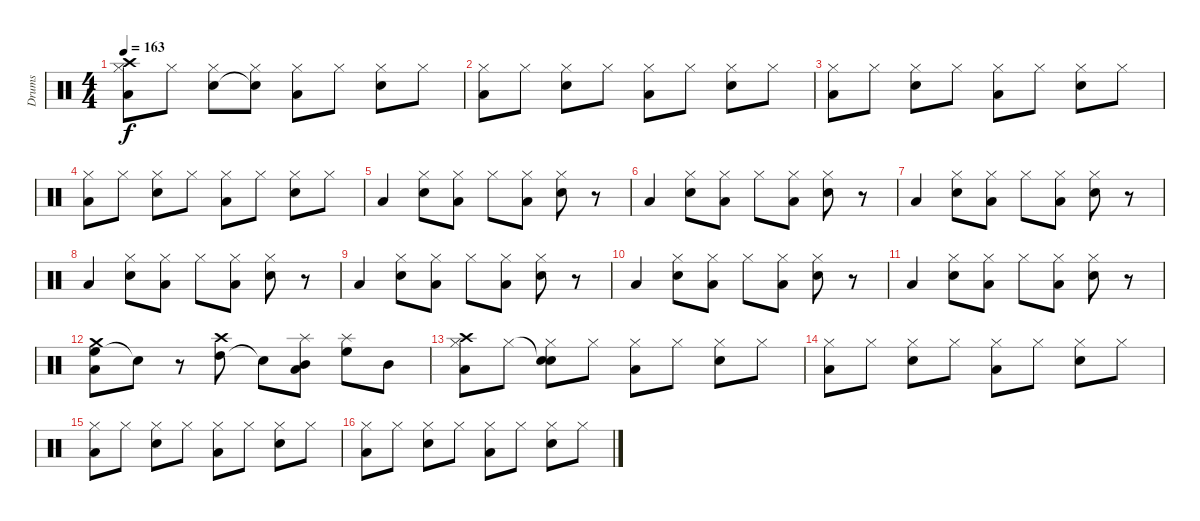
\track ("Drums" "Drums") {instrument percussion}
\staff {score}
\articulation defaults
\ts (4 4)
\tempo 163
\clef neutral
\ks c
("Crash high (hit)" "Low Tom (hit)" "Hi-Hat (closed)").8{dy f} "Hi-Hat (closed)".8 ("Snare (hit) 2" "Hi-Hat (closed)").8 ("Snare (hit)"{t} "Hi-Hat (closed)").8 ("Low Tom (hit)" "Hi-Hat (closed)").8 "Hi-Hat (closed)".8 ("Snare (hit) 2" "Hi-Hat (closed)").8 "Hi-Hat (closed)".8 |
("Low Tom (hit)" "Hi-Hat (closed)").8 "Hi-Hat (closed)".8 ("Snare (hit) 2" "Hi-Hat (closed)").8 "Hi-Hat (closed)".8 ("Low Tom (hit)" "Hi-Hat (closed)").8 "Hi-Hat (closed)".8 ("Snare (hit) 2" "Hi-Hat (closed)").8 "Hi-Hat (closed)".8 |
("Low Tom (hit)" "Hi-Hat (closed)").8 "Hi-Hat (closed)".8 ("Snare (hit) 2" "Hi-Hat (closed)").8 "Hi-Hat (closed)".8 ("Low Tom (hit)" "Hi-Hat (closed)").8 "Hi-Hat (closed)".8 ("Snare (hit) 2" "Hi-Hat (closed)").8 "Hi-Hat (closed)".8 |
("Low Tom (hit)" "Hi-Hat (closed)").8 "Hi-Hat (closed)".8 ("Snare (hit) 2" "Hi-Hat (closed)").8 "Hi-Hat (closed)".8 ("Low Tom (hit)" "Hi-Hat (closed)").8 "Hi-Hat (closed)".8 ("Snare (hit) 2" "Hi-Hat (closed)").8 "Hi-Hat (closed)".8 |
"Low Tom (hit)".4 ("Snare (hit) 2" "Hi-Hat (closed)").8 ("Low Tom (hit)" "Hi-Hat (closed)").8 "Hi-Hat (closed)".8 ("Low Tom (hit)" "Hi-Hat (closed)").8 ("Snare (hit) 2" "Hi-Hat (closed)").8 r.8 |
"Low Tom (hit)".4 ("Snare (hit) 2" "Hi-Hat (closed)").8 ("Low Tom (hit)" "Hi-Hat (closed)").8 "Hi-Hat (closed)".8 ("Low Tom (hit)" "Hi-Hat (closed)").8 ("Snare (hit) 2" "Hi-Hat (closed)").8 r.8 |
"Low Tom (hit)".4 ("Snare (hit) 2" "Hi-Hat (closed)").8 ("Low Tom (hit)" "Hi-Hat (closed)").8 "Hi-Hat (closed)".8 ("Low Tom (hit)" "Hi-Hat (closed)").8 ("Snare (hit) 2" "Hi-Hat (closed)").8 r.8 |
"Low Tom (hit)".4 ("Snare (hit) 2" "Hi-Hat (closed)").8 ("Low Tom (hit)" "Hi-Hat (closed)").8 "Hi-Hat (closed)".8 ("Low Tom (hit)" "Hi-Hat (closed)").8 ("Snare (hit) 2" "Hi-Hat (closed)").8 r.8 |
"Low Tom (hit)".4 ("Snare (hit) 2" "Hi-Hat (closed)").8 ("Low Tom (hit)" "Hi-Hat (closed)").8 "Hi-Hat (closed)".8 ("Low Tom (hit)" "Hi-Hat (closed)").8 ("Snare (hit) 2" "Hi-Hat (closed)").8 r.8 |
"Low Tom (hit)".4 ("Snare (hit) 2" "Hi-Hat (closed)").8 ("Low Tom (hit)" "Hi-Hat (closed)").8 "Hi-Hat (closed)".8 ("Low Tom (hit)" "Hi-Hat (closed)").8 ("Snare (hit) 2" "Hi-Hat (closed)").8 r.8 |
"Low Tom (hit)".4 ("Snare (hit) 2" "Hi-Hat (closed)").8 ("Low Tom (hit)" "Hi-Hat (closed)").8 "Hi-Hat (closed)".8 ("Low Tom (hit)" "Hi-Hat (closed)").8 ("Snare (hit) 2" "Hi-Hat (closed)").8 r.8 |
("High Floor Tom (hit)" "Crash medium (hit)" "Low Tom (hit)").8 "Snare (hit)"{t}.8 r.8 ("High Tom (hit)" "Crash high (hit)").8 "Snare (hit)"{t}.8 ("Mid Tom (hit)" "Splash (hit)" "Low Tom (hit)").8 ("High Floor Tom (hit)" "Splash (hit)").8 "Mid Tom (hit)".8 |
("Crash high (hit)" "Low Tom (hit)" "Hi-Hat (closed)").8 "Hi-Hat (closed)".8 ("Snare (hit)"{t} "Snare (hit) 2" "Hi-Hat (closed)").8 "Hi-Hat (closed)".8 ("Low Tom (hit)" "Hi-Hat (closed)").8 "Hi-Hat (closed)".8 ("Snare (hit) 2" "Hi-Hat (closed)").8 "Hi-Hat (closed)".8 |
("Low Tom (hit)" "Hi-Hat (closed)").8 "Hi-Hat (closed)".8 ("Snare (hit) 2" "Hi-Hat (closed)").8 "Hi-Hat (closed)".8 ("Low Tom (hit)" "Hi-Hat (closed)").8 "Hi-Hat (closed)".8 ("Snare (hit) 2" "Hi-Hat (closed)").8 "Hi-Hat (closed)".8 |
("Low Tom (hit)" "Hi-Hat (closed)").8 "Hi-Hat (closed)".8 ("Snare (hit) 2" "Hi-Hat (closed)").8 "Hi-Hat (closed)".8 ("Low Tom (hit)" "Hi-Hat (closed)").8 "Hi-Hat (closed)".8 ("Snare (hit) 2" "Hi-Hat (closed)").8 "Hi-Hat (closed)".8 |
("Low Tom (hit)" "Hi-Hat (closed)").8 "Hi-Hat (closed)".8 ("Snare (hit) 2" "Hi-Hat (closed)").8 "Hi-Hat (closed)".8 ("Low Tom (hit)" "Hi-Hat (closed)").8 "Hi-Hat (closed)".8 ("Snare (hit) 2" "Hi-Hat (closed)").8 "Hi-Hat (closed)".8
